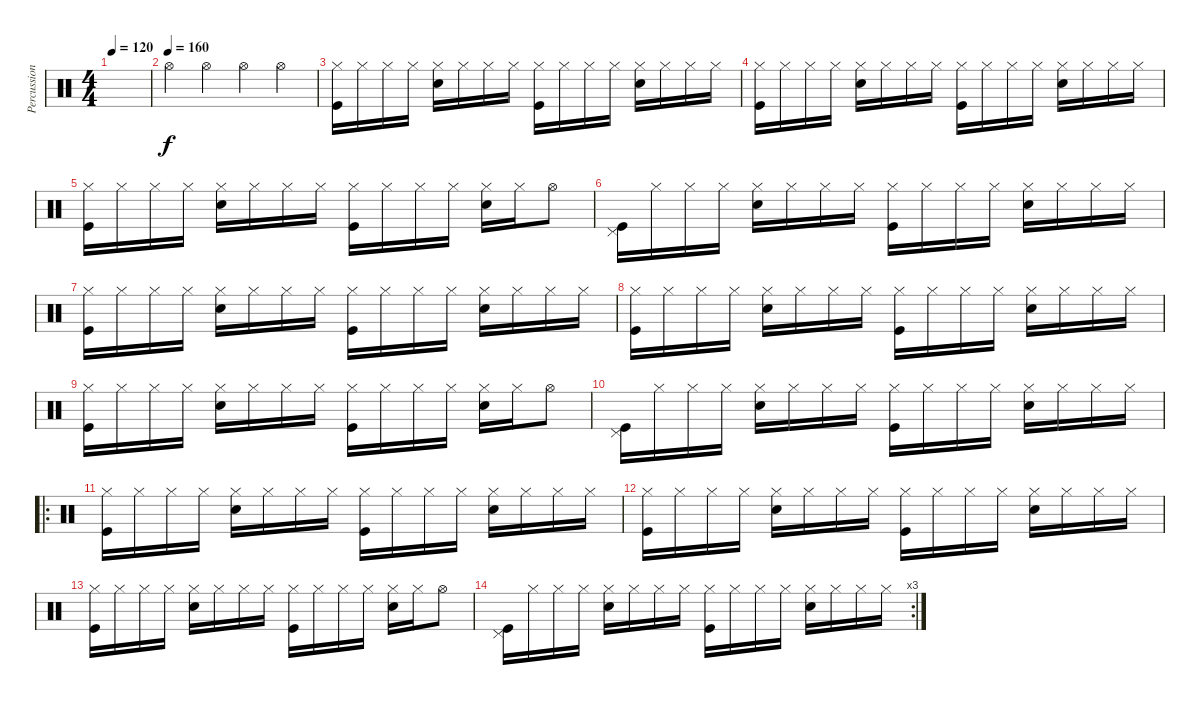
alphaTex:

\track ("Percussion" "Percussion") {instrument percussion}
\staff {score}
\articulation defaults
\ts (4 4)
\tempo 120
\clef neutral
\ks c
|
\tempo (160)
"Hi-Hat (open)".4 "Hi-Hat (open)".4 "Hi-Hat (open)".4 "Hi-Hat (open)".4 |
("Hi-Hat (closed)" "Kick (hit)").16 "Hi-Hat (closed)".16 "Hi-Hat (closed)".16 "Hi-Hat (closed)".16 ("Hi-Hat (closed)" "Snare (hit) 2").16 "Hi-Hat (closed)".16 "Hi-Hat (closed)".16 "Hi-Hat (closed)".16 ("Hi-Hat (closed)" "Kick (hit)").16 "Hi-Hat (closed)".16 "Hi-Hat (closed)".16 "Hi-Hat (closed)".16 ("Hi-Hat (closed)" "Snare (hit) 2").16 "Hi-Hat (closed)".16 "Hi-Hat (closed)".16 "Hi-Hat (closed)".16 |
("Hi-Hat (closed)" "Kick (hit)").16 "Hi-Hat (closed)".16 "Hi-Hat (closed)".16 "Hi-Hat (closed)".16 ("Hi-Hat (closed)" "Snare (hit) 2").16 "Hi-Hat (closed)".16 "Hi-Hat (closed)".16 "Hi-Hat (closed)".16 ("Hi-Hat (closed)" "Kick (hit)").16 "Hi-Hat (closed)".16 "Hi-Hat (closed)".16 "Hi-Hat (closed)".16 ("Hi-Hat (closed)" "Snare (hit) 2").16 "Hi-Hat (closed)".16 "Hi-Hat (closed)".16 "Hi-Hat (closed)".16 |
("Hi-Hat (closed)" "Kick (hit)").16 "Hi-Hat (closed)".16 "Hi-Hat (closed)".16 "Hi-Hat (closed)".16 ("Hi-Hat (closed)" "Snare (hit) 2").16 "Hi-Hat (closed)".16 "Hi-Hat (closed)".16 "Hi-Hat (closed)".16 ("Hi-Hat (closed)" "Kick (hit)").16 "Hi-Hat (closed)".16 "Hi-Hat (closed)".16 "Hi-Hat (closed)".16 ("Hi-Hat (closed)" "Snare (hit) 2").16 "Hi-Hat (closed)".16 "Hi-Hat (open)".8 |
("Pedal Hi-Hat (hit)" "Kick (hit)").16 "Hi-Hat (closed)".16 "Hi-Hat (closed)".16 "Hi-Hat (closed)".16 ("Hi-Hat (closed)" "Snare (hit) 2").16 "Hi-Hat (closed)".16 "Hi-Hat (closed)".16 "Hi-Hat (closed)".16 ("Hi-Hat (closed)" "Kick (hit)").16 "Hi-Hat (closed)".16 "Hi-Hat (closed)".16 "Hi-Hat (closed)".16 ("Hi-Hat (closed)" "Snare (hit) 2").16 "Hi-Hat (closed)".16 "Hi-Hat (closed)".16 "Hi-Hat (closed)".16 |
("Hi-Hat (closed)" "Kick (hit)").16 "Hi-Hat (closed)".16 "Hi-Hat (closed)".16 "Hi-Hat (closed)".16 ("Hi-Hat (closed)" "Snare (hit) 2").16 "Hi-Hat (closed)".16 "Hi-Hat (closed)".16 "Hi-Hat (closed)".16 ("Hi-Hat (closed)" "Kick (hit)").16 "Hi-Hat (closed)".16 "Hi-Hat (closed)".16 "Hi-Hat (closed)".16 ("Hi-Hat (closed)" "Snare (hit) 2").16 "Hi-Hat (closed)".16 "Hi-Hat (closed)".16 "Hi-Hat (closed)".16 |
("Hi-Hat (closed)" "Kick (hit)").16 "Hi-Hat (closed)".16 "Hi-Hat (closed)".16 "Hi-Hat (closed)".16 ("Hi-Hat (closed)" "Snare (hit) 2").16 "Hi-Hat (closed)".16 "Hi-Hat (closed)".16 "Hi-Hat (closed)".16 ("Hi-Hat (closed)" "Kick (hit)").16 "Hi-Hat (closed)".16 "Hi-Hat (closed)".16 "Hi-Hat (closed)".16 ("Hi-Hat (closed)" "Snare (hit) 2").16 "Hi-Hat (closed)".16 "Hi-Hat (closed)".16 "Hi-Hat (closed)".16 |
("Hi-Hat (closed)" "Kick (hit)").16 "Hi-Hat (closed)".16 "Hi-Hat (closed)".16 "Hi-Hat (closed)".16 ("Hi-Hat (closed)" "Snare (hit) 2").16 "Hi-Hat (closed)".16 "Hi-Hat (closed)".16 "Hi-Hat (closed)".16 ("Hi-Hat (closed)" "Kick (hit)").16 "Hi-Hat (closed)".16 "Hi-Hat (closed)".16 "Hi-Hat (closed)".16 ("Hi-Hat (closed)" "Snare (hit) 2").16 "Hi-Hat (closed)".16 "Hi-Hat (open)".8 |
("Pedal Hi-Hat (hit)" "Kick (hit)").16 "Hi-Hat (closed)".16 "Hi-Hat (closed)".16 "Hi-Hat (closed)".16 ("Hi-Hat (closed)" "Snare (hit) 2").16 "Hi-Hat (closed)".16 "Hi-Hat (closed)".16 "Hi-Hat (closed)".16 ("Hi-Hat (closed)" "Kick (hit)").16 "Hi-Hat (closed)".16 "Hi-Hat (closed)".16 "Hi-Hat (closed)".16 ("Hi-Hat (closed)" "Snare (hit) 2").16 "Hi-Hat (closed)".16 "Hi-Hat (closed)".16 "Hi-Hat (closed)".16 |
\ro
("Hi-Hat (closed)" "Kick (hit)").16 "Hi-Hat (closed)".16 "Hi-Hat (closed)".16 "Hi-Hat (closed)".16 ("Hi-Hat (closed)" "Snare (hit) 2").16 "Hi-Hat (closed)".16 "Hi-Hat (closed)".16 "Hi-Hat (closed)".16 ("Hi-Hat (closed)" "Kick (hit)").16 "Hi-Hat (closed)".16 "Hi-Hat (closed)".16 "Hi-Hat (closed)".16 ("Hi-Hat (closed)" "Snare (hit) 2").16 "Hi-Hat (closed)".16 "Hi-Hat (closed)".16 "Hi-Hat (closed)".16 |
("Hi-Hat (closed)" "Kick (hit)").16 "Hi-Hat (closed)".16 "Hi-Hat (closed)".16 "Hi-Hat (closed)".16 ("Hi-Hat (closed)" "Snare (hit) 2").16 "Hi-Hat (closed)".16 "Hi-Hat (closed)".16 "Hi-Hat (closed)".16 ("Hi-Hat (closed)" "Kick (hit)").16 "Hi-Hat (closed)".16 "Hi-Hat (closed)".16 "Hi-Hat (closed)".16 ("Hi-Hat (closed)" "Snare (hit) 2").16 "Hi-Hat (closed)".16 "Hi-Hat (closed)".16 "Hi-Hat (closed)".16 |
("Hi-Hat (closed)" "Kick (hit)").16 "Hi-Hat (closed)".16 "Hi-Hat (closed)".16 "Hi-Hat (closed)".16 ("Hi-Hat (closed)" "Snare (hit) 2").16 "Hi-Hat (closed)".16 "Hi-Hat (closed)".16 "Hi-Hat (closed)".16 ("Hi-Hat (closed)" "Kick (hit)").16 "Hi-Hat (closed)".16 "Hi-Hat (closed)".16 "Hi-Hat (closed)".16 ("Hi-Hat (closed)" "Snare (hit) 2").16 "Hi-Hat (closed)".16 "Hi-Hat (open)".8 |
\rc 3
("Pedal Hi-Hat (hit)" "Kick (hit)").16 "Hi-Hat (closed)".16 "Hi-Hat (closed)".16 "Hi-Hat (closed)".16 ("Hi-Hat (closed)" "Snare (hit) 2").16 "Hi-Hat (closed)".16 "Hi-Hat (closed)".16 "Hi-Hat (closed)".16 ("Hi-Hat (closed)" "Kick (hit)").16 "Hi-Hat (closed)".16 "Hi-Hat (closed)".16 "Hi-Hat (closed)".16 ("Hi-Hat (closed)" "Snare (hit) 2").16 "Hi-Hat (closed)".16 "Hi-Hat (closed)".16 "Hi-Hat (closed)".16
